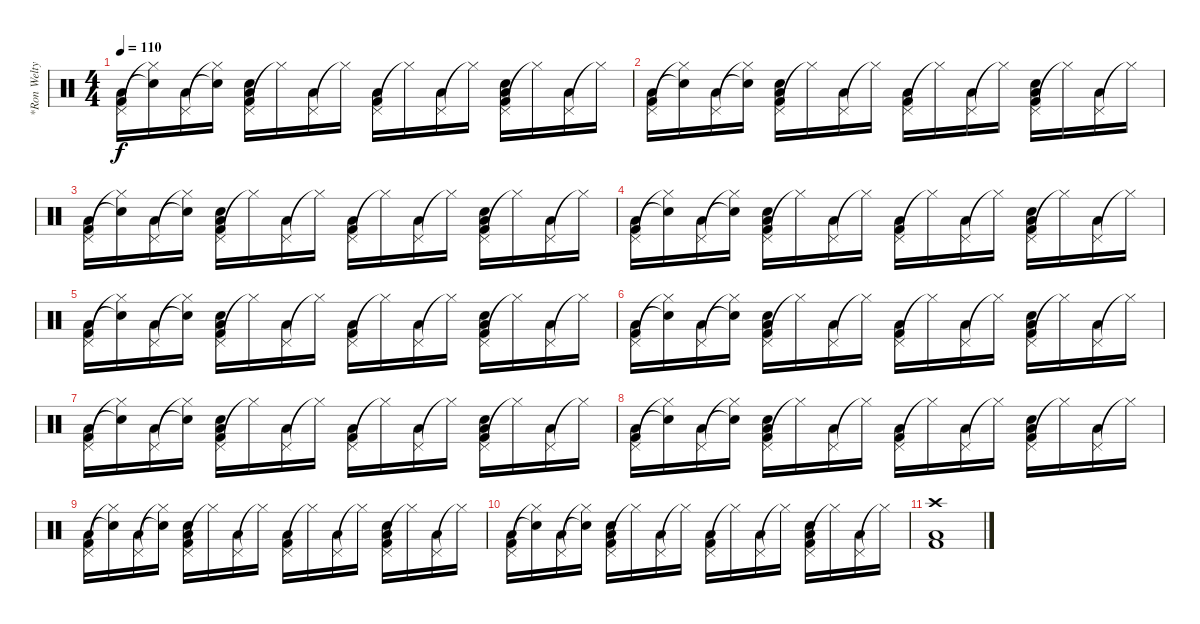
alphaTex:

\track ("*Ron Welty (Ex-drummer)" "*Ron Welty") {instrument percussion}
\staff {score}
\articulation defaults
\ts (4 4)
\tempo 110
\clef neutral
\ks c
("Pedal Hi-Hat (hit)" "Low Floor Tom (hit)" "Kick (hit) 2").16{dy f} ("Hi-Hat (closed)"{t} "Snare (hit)"{t}).16 ("Pedal Hi-Hat (hit)" "Low Floor Tom (hit)").16 ("Hi-Hat (closed)"{t} "Snare (hit)"{t}).16 ("Pedal Hi-Hat (hit)" "Snare (hit) 2" "Low Floor Tom (hit)" "Kick (hit) 2").16 "Hi-Hat (closed)"{t}.16 ("Pedal Hi-Hat (hit)" "Low Floor Tom (hit)").16 "Hi-Hat (closed)"{t}.16 ("Pedal Hi-Hat (hit)" "Low Floor Tom (hit)" "Kick (hit) 2").16 "Hi-Hat (closed)"{t}.16 ("Pedal Hi-Hat (hit)" "Low Floor Tom (hit)").16 "Hi-Hat (closed)"{t}.16 ("Pedal Hi-Hat (hit)" "Snare (hit) 2" "Low Floor Tom (hit)" "Kick (hit) 2").16 "Hi-Hat (closed)"{t}.16 ("Pedal Hi-Hat (hit)" "Low Floor Tom (hit)").16 "Hi-Hat (closed)"{t}.16 |
("Pedal Hi-Hat (hit)" "Low Floor Tom (hit)" "Kick (hit) 2").16 ("Hi-Hat (closed)"{t} "Snare (hit)"{t}).16 ("Pedal Hi-Hat (hit)" "Low Floor Tom (hit)").16 ("Hi-Hat (closed)"{t} "Snare (hit)"{t}).16 ("Pedal Hi-Hat (hit)" "Snare (hit) 2" "Low Floor Tom (hit)" "Kick (hit) 2").16 "Hi-Hat (closed)"{t}.16 ("Pedal Hi-Hat (hit)" "Low Floor Tom (hit)").16 "Hi-Hat (closed)"{t}.16 ("Pedal Hi-Hat (hit)" "Low Floor Tom (hit)" "Kick (hit) 2").16 "Hi-Hat (closed)"{t}.16 ("Pedal Hi-Hat (hit)" "Low Floor Tom (hit)").16 "Hi-Hat (closed)"{t}.16 ("Pedal Hi-Hat (hit)" "Snare (hit) 2" "Low Floor Tom (hit)" "Kick (hit) 2").16 "Hi-Hat (closed)"{t}.16 ("Pedal Hi-Hat (hit)" "Low Floor Tom (hit)").16 "Hi-Hat (closed)"{t}.16 |
("Pedal Hi-Hat (hit)" "Low Floor Tom (hit)" "Kick (hit) 2").16 ("Hi-Hat (closed)"{t} "Snare (hit)"{t}).16 ("Pedal Hi-Hat (hit)" "Low Floor Tom (hit)").16 ("Hi-Hat (closed)"{t} "Snare (hit)"{t}).16 ("Pedal Hi-Hat (hit)" "Snare (hit) 2" "Low Floor Tom (hit)" "Kick (hit) 2").16 "Hi-Hat (closed)"{t}.16 ("Pedal Hi-Hat (hit)" "Low Floor Tom (hit)").16 "Hi-Hat (closed)"{t}.16 ("Pedal Hi-Hat (hit)" "Low Floor Tom (hit)" "Kick (hit) 2").16 "Hi-Hat (closed)"{t}.16 ("Pedal Hi-Hat (hit)" "Low Floor Tom (hit)").16 "Hi-Hat (closed)"{t}.16 ("Pedal Hi-Hat (hit)" "Snare (hit) 2" "Low Floor Tom (hit)" "Kick (hit) 2").16 "Hi-Hat (closed)"{t}.16 ("Pedal Hi-Hat (hit)" "Low Floor Tom (hit)").16 "Hi-Hat (closed)"{t}.16 |
("Pedal Hi-Hat (hit)" "Low Floor Tom (hit)" "Kick (hit) 2").16 ("Hi-Hat (closed)"{t} "Snare (hit)"{t}).16 ("Pedal Hi-Hat (hit)" "Low Floor Tom (hit)").16 ("Hi-Hat (closed)"{t} "Snare (hit)"{t}).16 ("Pedal Hi-Hat (hit)" "Snare (hit) 2" "Low Floor Tom (hit)" "Kick (hit) 2").16 "Hi-Hat (closed)"{t}.16 ("Pedal Hi-Hat (hit)" "Low Floor Tom (hit)").16 "Hi-Hat (closed)"{t}.16 ("Pedal Hi-Hat (hit)" "Low Floor Tom (hit)" "Kick (hit) 2").16 "Hi-Hat (closed)"{t}.16 ("Pedal Hi-Hat (hit)" "Low Floor Tom (hit)").16 "Hi-Hat (closed)"{t}.16 ("Pedal Hi-Hat (hit)" "Snare (hit) 2" "Low Floor Tom (hit)" "Kick (hit) 2").16 "Hi-Hat (closed)"{t}.16 ("Pedal Hi-Hat (hit)" "Low Floor Tom (hit)").16 "Hi-Hat (closed)"{t}.16 |
("Pedal Hi-Hat (hit)" "Low Floor Tom (hit)" "Kick (hit) 2").16 ("Hi-Hat (closed)"{t} "Snare (hit)"{t}).16 ("Pedal Hi-Hat (hit)" "Low Floor Tom (hit)").16 ("Hi-Hat (closed)"{t} "Snare (hit)"{t}).16 ("Pedal Hi-Hat (hit)" "Snare (hit) 2" "Low Floor Tom (hit)" "Kick (hit) 2").16 "Hi-Hat (closed)"{t}.16 ("Pedal Hi-Hat (hit)" "Low Floor Tom (hit)").16 "Hi-Hat (closed)"{t}.16 ("Pedal Hi-Hat (hit)" "Low Floor Tom (hit)" "Kick (hit) 2").16 "Hi-Hat (closed)"{t}.16 ("Pedal Hi-Hat (hit)" "Low Floor Tom (hit)").16 "Hi-Hat (closed)"{t}.16 ("Pedal Hi-Hat (hit)" "Snare (hit) 2" "Low Floor Tom (hit)" "Kick (hit) 2").16 "Hi-Hat (closed)"{t}.16 ("Pedal Hi-Hat (hit)" "Low Floor Tom (hit)").16 "Hi-Hat (closed)"{t}.16 |
("Pedal Hi-Hat (hit)" "Low Floor Tom (hit)" "Kick (hit) 2").16 ("Hi-Hat (closed)"{t} "Snare (hit)"{t}).16 ("Pedal Hi-Hat (hit)" "Low Floor Tom (hit)").16 ("Hi-Hat (closed)"{t} "Snare (hit)"{t}).16 ("Pedal Hi-Hat (hit)" "Snare (hit) 2" "Low Floor Tom (hit)" "Kick (hit) 2").16 "Hi-Hat (closed)"{t}.16 ("Pedal Hi-Hat (hit)" "Low Floor Tom (hit)").16 "Hi-Hat (closed)"{t}.16 ("Pedal Hi-Hat (hit)" "Low Floor Tom (hit)" "Kick (hit) 2").16 "Hi-Hat (closed)"{t}.16 ("Pedal Hi-Hat (hit)" "Low Floor Tom (hit)").16 "Hi-Hat (closed)"{t}.16 ("Pedal Hi-Hat (hit)" "Snare (hit) 2" "Low Floor Tom (hit)" "Kick (hit) 2").16 "Hi-Hat (closed)"{t}.16 ("Pedal Hi-Hat (hit)" "Low Floor Tom (hit)").16 "Hi-Hat (closed)"{t}.16 |
("Pedal Hi-Hat (hit)" "Low Floor Tom (hit)" "Kick (hit) 2").16 ("Hi-Hat (closed)"{t} "Snare (hit)"{t}).16 ("Pedal Hi-Hat (hit)" "Low Floor Tom (hit)").16 ("Hi-Hat (closed)"{t} "Snare (hit)"{t}).16 ("Pedal Hi-Hat (hit)" "Snare (hit) 2" "Low Floor Tom (hit)" "Kick (hit) 2").16 "Hi-Hat (closed)"{t}.16 ("Pedal Hi-Hat (hit)" "Low Floor Tom (hit)").16 "Hi-Hat (closed)"{t}.16 ("Pedal Hi-Hat (hit)" "Low Floor Tom (hit)" "Kick (hit) 2").16 "Hi-Hat (closed)"{t}.16 ("Pedal Hi-Hat (hit)" "Low Floor Tom (hit)").16 "Hi-Hat (closed)"{t}.16 ("Pedal Hi-Hat (hit)" "Snare (hit) 2" "Low Floor Tom (hit)" "Kick (hit) 2").16 "Hi-Hat (closed)"{t}.16 ("Pedal Hi-Hat (hit)" "Low Floor Tom (hit)").16 "Hi-Hat (closed)"{t}.16 |
("Pedal Hi-Hat (hit)" "Low Floor Tom (hit)" "Kick (hit) 2").16 ("Hi-Hat (closed)"{t} "Snare (hit)"{t}).16 ("Pedal Hi-Hat (hit)" "Low Floor Tom (hit)").16 ("Hi-Hat (closed)"{t} "Snare (hit)"{t}).16 ("Pedal Hi-Hat (hit)" "Snare (hit) 2" "Low Floor Tom (hit)" "Kick (hit) 2").16 "Hi-Hat (closed)"{t}.16 ("Pedal Hi-Hat (hit)" "Low Floor Tom (hit)").16 "Hi-Hat (closed)"{t}.16 ("Pedal Hi-Hat (hit)" "Low Floor Tom (hit)" "Kick (hit) 2").16 "Hi-Hat (closed)"{t}.16 ("Pedal Hi-Hat (hit)" "Low Floor Tom (hit)").16 "Hi-Hat (closed)"{t}.16 ("Pedal Hi-Hat (hit)" "Snare (hit) 2" "Low Floor Tom (hit)" "Kick (hit) 2").16 "Hi-Hat (closed)"{t}.16 ("Pedal Hi-Hat (hit)" "Low Floor Tom (hit)").16 "Hi-Hat (closed)"{t}.16 |
("Pedal Hi-Hat (hit)" "Low Floor Tom (hit)" "Kick (hit) 2").16 ("Hi-Hat (closed)"{t} "Snare (hit)"{t}).16 ("Pedal Hi-Hat (hit)" "Low Floor Tom (hit)").16 ("Hi-Hat (closed)"{t} "Snare (hit)"{t}).16 ("Pedal Hi-Hat (hit)" "Snare (hit) 2" "Low Floor Tom (hit)" "Kick (hit) 2").16 "Hi-Hat (closed)"{t}.16 ("Pedal Hi-Hat (hit)" "Low Floor Tom (hit)").16 "Hi-Hat (closed)"{t}.16 ("Pedal Hi-Hat (hit)" "Low Floor Tom (hit)" "Kick (hit) 2").16 "Hi-Hat (closed)"{t}.16 ("Pedal Hi-Hat (hit)" "Low Floor Tom (hit)").16 "Hi-Hat (closed)"{t}.16 ("Pedal Hi-Hat (hit)" "Snare (hit) 2" "Low Floor Tom (hit)" "Kick (hit) 2").16 "Hi-Hat (closed)"{t}.16 ("Pedal Hi-Hat (hit)" "Low Floor Tom (hit)").16 "Hi-Hat (closed)"{t}.16 |
("Pedal Hi-Hat (hit)" "Low Floor Tom (hit)" "Kick (hit) 2").16 ("Hi-Hat (closed)"{t} "Snare (hit)"{t}).16 ("Pedal Hi-Hat (hit)" "Low Floor Tom (hit)").16 ("Hi-Hat (closed)"{t} "Snare (hit)"{t}).16 ("Pedal Hi-Hat (hit)" "Snare (hit) 2" "Low Floor Tom (hit)" "Kick (hit) 2").16 "Hi-Hat (closed)"{t}.16 ("Pedal Hi-Hat (hit)" "Low Floor Tom (hit)").16 "Hi-Hat (closed)"{t}.16 ("Pedal Hi-Hat (hit)" "Low Floor Tom (hit)" "Kick (hit) 2").16 "Hi-Hat (closed)"{t}.16 ("Pedal Hi-Hat (hit)" "Low Floor Tom (hit)").16 "Hi-Hat (closed)"{t}.16 ("Pedal Hi-Hat (hit)" "Snare (hit) 2" "Low Floor Tom (hit)" "Kick (hit) 2").16 "Hi-Hat (closed)"{t}.16 ("Pedal Hi-Hat (hit)" "Low Floor Tom (hit)").16 "Hi-Hat (closed)"{t}.16 |
("Crash high (hit)" "Low Floor Tom (hit)" "Kick (hit) 2").1
